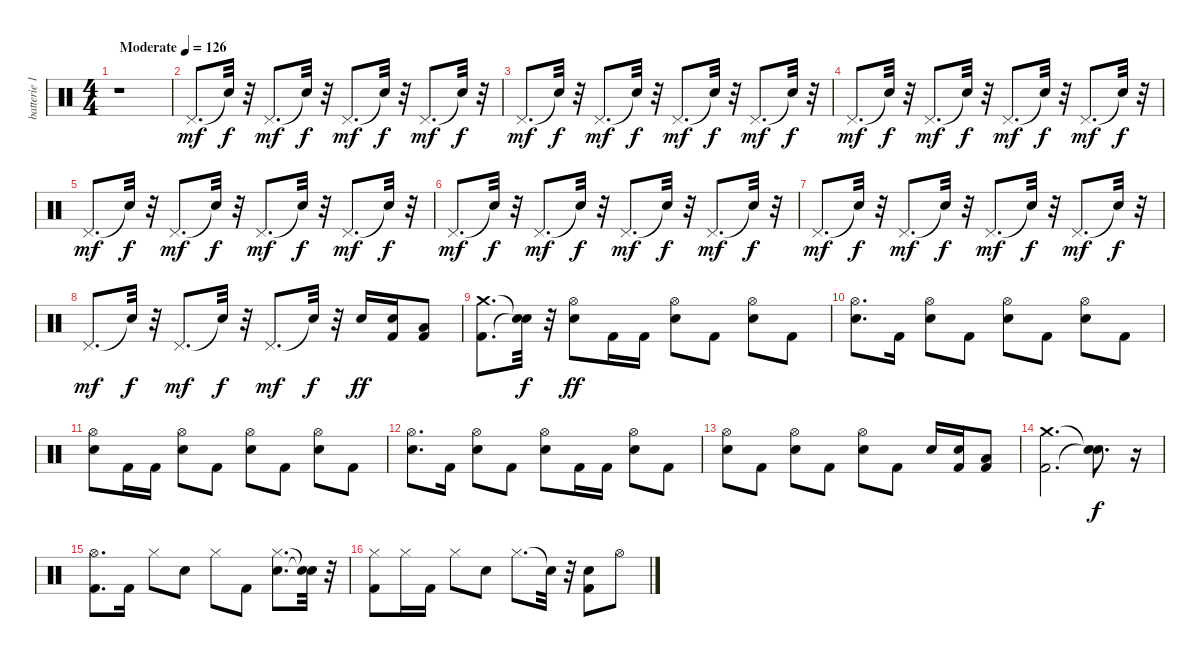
\track ("batterie 1" "batterie 1") {instrument percussion}
\staff {score}
\articulation defaults
\ts (4 4)
\tempo (126 "Moderate")
\clef neutral
\ks c
r.1{dy mf} |
"Pedal Hi-Hat (hit)".8{d} "Snare (hit)"{t}.32{dy f} r.32 "Pedal Hi-Hat (hit)".8{d dy mf} "Snare (hit)"{t}.32{dy f} r.32 "Pedal Hi-Hat (hit)".8{d dy mf} "Snare (hit)"{t}.32{dy f} r.32 "Pedal Hi-Hat (hit)".8{d dy mf} "Snare (hit)"{t}.32{dy f} r.32 |
"Pedal Hi-Hat (hit)".8{d dy mf} "Snare (hit)"{t}.32{dy f} r.32 "Pedal Hi-Hat (hit)".8{d dy mf} "Snare (hit)"{t}.32{dy f} r.32 "Pedal Hi-Hat (hit)".8{d dy mf} "Snare (hit)"{t}.32{dy f} r.32 "Pedal Hi-Hat (hit)".8{d dy mf} "Snare (hit)"{t}.32{dy f} r.32 |
"Pedal Hi-Hat (hit)".8{d dy mf} "Snare (hit)"{t}.32{dy f} r.32 "Pedal Hi-Hat (hit)".8{d dy mf} "Snare (hit)"{t}.32{dy f} r.32 "Pedal Hi-Hat (hit)".8{d dy mf} "Snare (hit)"{t}.32{dy f} r.32 "Pedal Hi-Hat (hit)".8{d dy mf} "Snare (hit)"{t}.32{dy f} r.32 |
"Pedal Hi-Hat (hit)".8{d dy mf} "Snare (hit)"{t}.32{dy f} r.32 "Pedal Hi-Hat (hit)".8{d dy mf} "Snare (hit)"{t}.32{dy f} r.32 "Pedal Hi-Hat (hit)".8{d dy mf} "Snare (hit)"{t}.32{dy f} r.32 "Pedal Hi-Hat (hit)".8{d dy mf} "Snare (hit)"{t}.32{dy f} r.32 |
"Pedal Hi-Hat (hit)".8{d dy mf} "Snare (hit)"{t}.32{dy f} r.32 "Pedal Hi-Hat (hit)".8{d dy mf} "Snare (hit)"{t}.32{dy f} r.32 "Pedal Hi-Hat (hit)".8{d dy mf} "Snare (hit)"{t}.32{dy f} r.32 "Pedal Hi-Hat (hit)".8{d dy mf} "Snare (hit)"{t}.32{dy f} r.32 |
"Pedal Hi-Hat (hit)".8{d dy mf} "Snare (hit)"{t}.32{dy f} r.32 "Pedal Hi-Hat (hit)".8{d dy mf} "Snare (hit)"{t}.32{dy f} r.32 "Pedal Hi-Hat (hit)".8{d dy mf} "Snare (hit)"{t}.32{dy f} r.32 "Pedal Hi-Hat (hit)".8{d dy mf} "Snare (hit)"{t}.32{dy f} r.32 |
"Pedal Hi-Hat (hit)".8{d dy mf} "Snare (hit)"{t}.32{dy f} r.32 "Pedal Hi-Hat (hit)".8{d dy mf} "Snare (hit)"{t}.32{dy f} r.32 "Pedal Hi-Hat (hit)".8{d dy mf} "Snare (hit)"{t}.32{dy f} r.32 "Electric Snare (hit)".16{dy ff} ("Kick (hit) 2" "Electric Snare (hit)").16 ("Kick (hit) 2" "Low Tom (hit)").8 |
("Kick (hit) 2" "Crash medium (hit)").8{d} ("Snare (hit)"{t} "Snare (hit)"{t}).32{dy f} r.32 ("Electric Snare (hit)" "Hi-Hat (open)").8{dy ff} "Kick (hit) 2".16 "Kick (hit) 2".16 ("Electric Snare (hit)" "Hi-Hat (open)").8 "Kick (hit) 2".8 ("Electric Snare (hit)" "Hi-Hat (open)").8 "Kick (hit) 2".8 |
("Electric Snare (hit)" "Hi-Hat (open)").8{d} "Kick (hit) 2".16 ("Electric Snare (hit)" "Hi-Hat (open)").8 "Kick (hit) 2".8 ("Electric Snare (hit)" "Hi-Hat (open)").8 "Kick (hit) 2".8 ("Electric Snare (hit)" "Hi-Hat (open)").8 "Kick (hit) 2".8 |
("Electric Snare (hit)" "Hi-Hat (open)").8 "Kick (hit) 2".16 "Kick (hit) 2".16 ("Electric Snare (hit)" "Hi-Hat (open)").8 "Kick (hit) 2".8 ("Electric Snare (hit)" "Hi-Hat (open)").8 "Kick (hit) 2".8 ("Electric Snare (hit)" "Hi-Hat (open)").8 "Kick (hit) 2".8 |
("Electric Snare (hit)" "Hi-Hat (open)").8{d} "Kick (hit) 2".16 ("Electric Snare (hit)" "Hi-Hat (open)").8 "Kick (hit) 2".8 ("Electric Snare (hit)" "Hi-Hat (open)").8 "Kick (hit) 2".16 "Kick (hit) 2".16 ("Electric Snare (hit)" "Hi-Hat (open)").8 "Kick (hit) 2".8 |
("Electric Snare (hit)" "Hi-Hat (open)").8 "Kick (hit) 2".8 ("Electric Snare (hit)" "Hi-Hat (open)").8 "Kick (hit) 2".8 ("Electric Snare (hit)" "Hi-Hat (open)").8 "Kick (hit) 2".8 "Electric Snare (hit)".16 ("Kick (hit) 2" "Electric Snare (hit)").16 ("Kick (hit) 2" "Low Tom (hit)").8 |
("Kick (hit) 2" "Crash medium (hit)").2{d} ("Snare (hit)"{t} "Snare (hit)"{t}).8{d dy f} r.16 |
("Kick (hit) 2" "Hi-Hat (open)").8{d} "Kick (hit) 2".16 "Hi-Hat (closed)".8 "Electric Snare (hit)".8 "Hi-Hat (closed)".8 "Kick (hit) 2".8 ("Electric Snare (hit)" "Hi-Hat (closed)").8{d} ("Snare (hit)"{t} "Snare (hit)"{t}).32 r.32 |
("Kick (hit) 2" "Hi-Hat (closed)").8 "Hi-Hat (closed)".16 "Kick (hit) 2".16 "Hi-Hat (closed)".8 "Electric Snare (hit)".8 "Hi-Hat (closed)".8{d} "Snare (hit)"{t}.32 r.32 ("Kick (hit) 2" "Electric Snare (hit)").8 "Hi-Hat (open)".8
